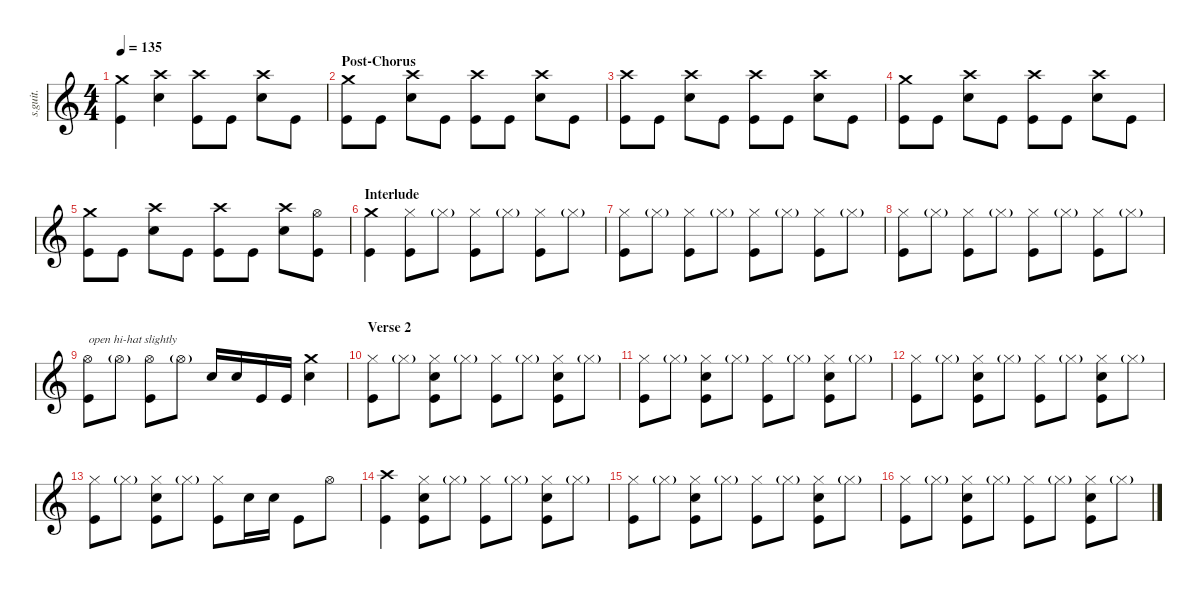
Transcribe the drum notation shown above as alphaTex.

\defaultSystemsLayout 4
\hideDynamics
\bracketExtendMode nobrackets
\track ("Jen Ledger" "s.guit.") {instrument percussion}
\staff {score}
\articulation defaults
\ts (4 4)
\tempo 135
\clef g2
\ks c
("Crash medium (hit)" "Kick (hit)").4{lyrics (0 "") lyrics (1 "") lyrics (2 "") lyrics (3 "") lyrics (4 "") dy fff} ("Crash high (hit)" "Snare (hit) 2").4{lyrics (0 "") lyrics (1 "") lyrics (2 "") lyrics (3 "") lyrics (4 "") dy f} ("Crash high (hit)" "Kick (hit)").8{lyrics (0 "") lyrics (1 "") lyrics (2 "") lyrics (3 "") lyrics (4 "")} "Kick (hit)".8{lyrics (0 "") lyrics (1 "") lyrics (2 "") lyrics (3 "") lyrics (4 "") dy fff} ("Crash high (hit)" "Snare (hit) 2").8{lyrics (0 "") lyrics (1 "") lyrics (2 "") lyrics (3 "") lyrics (4 "") dy f} "Kick (hit)".8{lyrics (0 "") lyrics (1 "") lyrics (2 "") lyrics (3 "") lyrics (4 "") dy fff} |
\section ("" "Post-Chorus")
("Crash medium (hit)" "Kick (hit)").8{lyrics (0 "") lyrics (1 "") lyrics (2 "") lyrics (3 "") lyrics (4 "")} "Kick (hit)".8{lyrics (0 "") lyrics (1 "") lyrics (2 "") lyrics (3 "") lyrics (4 "")} ("Crash high (hit)" "Snare (hit) 2").8{lyrics (0 "") lyrics (1 "") lyrics (2 "") lyrics (3 "") lyrics (4 "") dy f} "Kick (hit)".8{lyrics (0 "") lyrics (1 "") lyrics (2 "") lyrics (3 "") lyrics (4 "") dy fff} ("Crash high (hit)" "Kick (hit)").8{lyrics (0 "") lyrics (1 "") lyrics (2 "") lyrics (3 "") lyrics (4 "")} "Kick (hit)".8{lyrics (0 "") lyrics (1 "") lyrics (2 "") lyrics (3 "") lyrics (4 "")} ("Crash high (hit)" "Snare (hit) 2").8{lyrics (0 "") lyrics (1 "") lyrics (2 "") lyrics (3 "") lyrics (4 "") dy f} "Kick (hit)".8{lyrics (0 "") lyrics (1 "") lyrics (2 "") lyrics (3 "") lyrics (4 "") dy fff} |
("Crash high (hit)" "Kick (hit)").8{lyrics (0 "") lyrics (1 "") lyrics (2 "") lyrics (3 "") lyrics (4 "")} "Kick (hit)".8{lyrics (0 "") lyrics (1 "") lyrics (2 "") lyrics (3 "") lyrics (4 "")} ("Crash high (hit)" "Snare (hit) 2").8{lyrics (0 "") lyrics (1 "") lyrics (2 "") lyrics (3 "") lyrics (4 "") dy f} "Kick (hit)".8{lyrics (0 "") lyrics (1 "") lyrics (2 "") lyrics (3 "") lyrics (4 "") dy fff} ("Crash high (hit)" "Kick (hit)").8{lyrics (0 "") lyrics (1 "") lyrics (2 "") lyrics (3 "") lyrics (4 "")} "Kick (hit)".8{lyrics (0 "") lyrics (1 "") lyrics (2 "") lyrics (3 "") lyrics (4 "")} ("Crash high (hit)" "Snare (hit) 2").8{lyrics (0 "") lyrics (1 "") lyrics (2 "") lyrics (3 "") lyrics (4 "") dy f} "Kick (hit)".8{lyrics (0 "") lyrics (1 "") lyrics (2 "") lyrics (3 "") lyrics (4 "") dy fff} |
("Crash medium (hit)" "Kick (hit)").8{lyrics (0 "") lyrics (1 "") lyrics (2 "") lyrics (3 "") lyrics (4 "")} "Kick (hit)".8{lyrics (0 "") lyrics (1 "") lyrics (2 "") lyrics (3 "") lyrics (4 "")} ("Crash high (hit)" "Snare (hit) 2").8{lyrics (0 "") lyrics (1 "") lyrics (2 "") lyrics (3 "") lyrics (4 "") dy f} "Kick (hit)".8{lyrics (0 "") lyrics (1 "") lyrics (2 "") lyrics (3 "") lyrics (4 "") dy fff} ("Crash high (hit)" "Kick (hit)").8{lyrics (0 "") lyrics (1 "") lyrics (2 "") lyrics (3 "") lyrics (4 "")} "Kick (hit)".8{lyrics (0 "") lyrics (1 "") lyrics (2 "") lyrics (3 "") lyrics (4 "")} ("Crash high (hit)" "Snare (hit) 2").8{lyrics (0 "") lyrics (1 "") lyrics (2 "") lyrics (3 "") lyrics (4 "") dy f} "Kick (hit)".8{lyrics (0 "") lyrics (1 "") lyrics (2 "") lyrics (3 "") lyrics (4 "") dy fff} |
("Crash medium (hit)" "Kick (hit)").8{lyrics (0 "") lyrics (1 "") lyrics (2 "") lyrics (3 "") lyrics (4 "")} "Kick (hit)".8{lyrics (0 "") lyrics (1 "") lyrics (2 "") lyrics (3 "") lyrics (4 "")} ("Crash high (hit)" "Snare (hit) 2").8{lyrics (0 "") lyrics (1 "") lyrics (2 "") lyrics (3 "") lyrics (4 "") dy f} "Kick (hit)".8{lyrics (0 "") lyrics (1 "") lyrics (2 "") lyrics (3 "") lyrics (4 "") dy fff} ("Crash high (hit)" "Kick (hit)").8{lyrics (0 "") lyrics (1 "") lyrics (2 "") lyrics (3 "") lyrics (4 "")} "Kick (hit)".8{lyrics (0 "") lyrics (1 "") lyrics (2 "") lyrics (3 "") lyrics (4 "")} ("Crash high (hit)" "Snare (hit) 2").8{lyrics (0 "") lyrics (1 "") lyrics (2 "") lyrics (3 "") lyrics (4 "") dy f} ("Hi-Hat (open)" "Kick (hit)").8{lyrics (0 "") lyrics (1 "") lyrics (2 "") lyrics (3 "") lyrics (4 "")} |
\section ("" "Interlude")
("Crash medium (hit)" "Kick (hit)").4{lyrics (0 "") lyrics (1 "") lyrics (2 "") lyrics (3 "") lyrics (4 "")} ("Hi-Hat (closed)" "Kick (hit)").8{lyrics (0 "") lyrics (1 "") lyrics (2 "") lyrics (3 "") lyrics (4 "")} "Hi-Hat (closed)"{g}.8{lyrics (0 "") lyrics (1 "") lyrics (2 "") lyrics (3 "") lyrics (4 "") dy ppp} ("Hi-Hat (closed)" "Kick (hit)").8{lyrics (0 "") lyrics (1 "") lyrics (2 "") lyrics (3 "") lyrics (4 "") dy f} "Hi-Hat (closed)"{g}.8{lyrics (0 "") lyrics (1 "") lyrics (2 "") lyrics (3 "") lyrics (4 "") dy ppp} ("Hi-Hat (closed)" "Kick (hit)").8{lyrics (0 "") lyrics (1 "") lyrics (2 "") lyrics (3 "") lyrics (4 "") dy f} "Hi-Hat (closed)"{g}.8{lyrics (0 "") lyrics (1 "") lyrics (2 "") lyrics (3 "") lyrics (4 "") dy ppp} |
("Hi-Hat (closed)" "Kick (hit)").8{lyrics (0 "") lyrics (1 "") lyrics (2 "") lyrics (3 "") lyrics (4 "") dy f} "Hi-Hat (closed)"{g}.8{lyrics (0 "") lyrics (1 "") lyrics (2 "") lyrics (3 "") lyrics (4 "") dy ppp} ("Hi-Hat (closed)" "Kick (hit)").8{lyrics (0 "") lyrics (1 "") lyrics (2 "") lyrics (3 "") lyrics (4 "") dy f} "Hi-Hat (closed)"{g}.8{lyrics (0 "") lyrics (1 "") lyrics (2 "") lyrics (3 "") lyrics (4 "") dy ppp} ("Hi-Hat (closed)" "Kick (hit)").8{lyrics (0 "") lyrics (1 "") lyrics (2 "") lyrics (3 "") lyrics (4 "") dy f} "Hi-Hat (closed)"{g}.8{lyrics (0 "") lyrics (1 "") lyrics (2 "") lyrics (3 "") lyrics (4 "") dy ppp} ("Hi-Hat (closed)" "Kick (hit)").8{lyrics (0 "") lyrics (1 "") lyrics (2 "") lyrics (3 "") lyrics (4 "") dy f} "Hi-Hat (closed)"{g}.8{lyrics (0 "") lyrics (1 "") lyrics (2 "") lyrics (3 "") lyrics (4 "") dy ppp} |
("Hi-Hat (closed)" "Kick (hit)").8{lyrics (0 "") lyrics (1 "") lyrics (2 "") lyrics (3 "") lyrics (4 "") dy f} "Hi-Hat (closed)"{g}.8{lyrics (0 "") lyrics (1 "") lyrics (2 "") lyrics (3 "") lyrics (4 "") dy ppp} ("Hi-Hat (closed)" "Kick (hit)").8{lyrics (0 "") lyrics (1 "") lyrics (2 "") lyrics (3 "") lyrics (4 "") dy f} "Hi-Hat (closed)"{g}.8{lyrics (0 "") lyrics (1 "") lyrics (2 "") lyrics (3 "") lyrics (4 "") dy ppp} ("Hi-Hat (closed)" "Kick (hit)").8{lyrics (0 "") lyrics (1 "") lyrics (2 "") lyrics (3 "") lyrics (4 "") dy f} "Hi-Hat (closed)"{g}.8{lyrics (0 "") lyrics (1 "") lyrics (2 "") lyrics (3 "") lyrics (4 "") dy ppp} ("Hi-Hat (closed)" "Kick (hit)").8{lyrics (0 "") lyrics (1 "") lyrics (2 "") lyrics (3 "") lyrics (4 "") dy f} "Hi-Hat (closed)"{g}.8{lyrics (0 "") lyrics (1 "") lyrics (2 "") lyrics (3 "") lyrics (4 "") dy ppp} |
("Hi-Hat (open)" "Kick (hit)").8{txt "open hi-hat slightly" lyrics (0 "") lyrics (1 "") lyrics (2 "") lyrics (3 "") lyrics (4 "") dy p} "Hi-Hat (open)"{g}.8{lyrics (0 "") lyrics (1 "") lyrics (2 "") lyrics (3 "") lyrics (4 "") dy ppp} ("Hi-Hat (open)" "Kick (hit)").8{lyrics (0 "") lyrics (1 "") lyrics (2 "") lyrics (3 "") lyrics (4 "") dy p} "Hi-Hat (open)"{g}.8{lyrics (0 "") lyrics (1 "") lyrics (2 "") lyrics (3 "") lyrics (4 "") dy ppp} "Snare (hit) 2".16{lyrics (0 "") lyrics (1 "") lyrics (2 "") lyrics (3 "") lyrics (4 "") dy f} "Snare (hit) 2".16{lyrics (0 "") lyrics (1 "") lyrics (2 "") lyrics (3 "") lyrics (4 "")} "Kick (hit)".16{lyrics (0 "") lyrics (1 "") lyrics (2 "") lyrics (3 "") lyrics (4 "") dy fff} "Kick (hit)".16{lyrics (0 "") lyrics (1 "") lyrics (2 "") lyrics (3 "") lyrics (4 "")} ("Crash medium (hit)" "Snare (hit) 2").4{lyrics (0 "") lyrics (1 "") lyrics (2 "") lyrics (3 "") lyrics (4 "") dy f} |
\section ("" "Verse 2")
("Hi-Hat (closed)" "Kick (hit)").8{lyrics (0 "") lyrics (1 "") lyrics (2 "") lyrics (3 "") lyrics (4 "")} "Hi-Hat (closed)"{g}.8{lyrics (0 "") lyrics (1 "") lyrics (2 "") lyrics (3 "") lyrics (4 "") dy ppp} ("Hi-Hat (closed)" "Snare (hit) 2" "Kick (hit)").8{lyrics (0 "") lyrics (1 "") lyrics (2 "") lyrics (3 "") lyrics (4 "") dy f} "Hi-Hat (closed)"{g}.8{lyrics (0 "") lyrics (1 "") lyrics (2 "") lyrics (3 "") lyrics (4 "") dy ppp} ("Hi-Hat (closed)" "Kick (hit)").8{lyrics (0 "") lyrics (1 "") lyrics (2 "") lyrics (3 "") lyrics (4 "") dy f} "Hi-Hat (closed)"{g}.8{lyrics (0 "") lyrics (1 "") lyrics (2 "") lyrics (3 "") lyrics (4 "") dy ppp} ("Hi-Hat (closed)" "Snare (hit) 2" "Kick (hit)").8{lyrics (0 "") lyrics (1 "") lyrics (2 "") lyrics (3 "") lyrics (4 "") dy f} "Hi-Hat (closed)"{g}.8{lyrics (0 "") lyrics (1 "") lyrics (2 "") lyrics (3 "") lyrics (4 "") dy ppp} |
("Hi-Hat (closed)" "Kick (hit)").8{lyrics (0 "") lyrics (1 "") lyrics (2 "") lyrics (3 "") lyrics (4 "") dy f} "Hi-Hat (closed)"{g}.8{lyrics (0 "") lyrics (1 "") lyrics (2 "") lyrics (3 "") lyrics (4 "") dy ppp} ("Hi-Hat (closed)" "Snare (hit) 2" "Kick (hit)").8{lyrics (0 "") lyrics (1 "") lyrics (2 "") lyrics (3 "") lyrics (4 "") dy f} "Hi-Hat (closed)"{g}.8{lyrics (0 "") lyrics (1 "") lyrics (2 "") lyrics (3 "") lyrics (4 "") dy ppp} ("Hi-Hat (closed)" "Kick (hit)").8{lyrics (0 "") lyrics (1 "") lyrics (2 "") lyrics (3 "") lyrics (4 "") dy f} "Hi-Hat (closed)"{g}.8{lyrics (0 "") lyrics (1 "") lyrics (2 "") lyrics (3 "") lyrics (4 "") dy ppp} ("Hi-Hat (closed)" "Snare (hit) 2" "Kick (hit)").8{lyrics (0 "") lyrics (1 "") lyrics (2 "") lyrics (3 "") lyrics (4 "") dy f} "Hi-Hat (closed)"{g}.8{lyrics (0 "") lyrics (1 "") lyrics (2 "") lyrics (3 "") lyrics (4 "") dy ppp} |
("Hi-Hat (closed)" "Kick (hit)").8{lyrics (0 "") lyrics (1 "") lyrics (2 "") lyrics (3 "") lyrics (4 "") dy f} "Hi-Hat (closed)"{g}.8{lyrics (0 "") lyrics (1 "") lyrics (2 "") lyrics (3 "") lyrics (4 "") dy ppp} ("Hi-Hat (closed)" "Snare (hit) 2" "Kick (hit)").8{lyrics (0 "") lyrics (1 "") lyrics (2 "") lyrics (3 "") lyrics (4 "") dy f} "Hi-Hat (closed)"{g}.8{lyrics (0 "") lyrics (1 "") lyrics (2 "") lyrics (3 "") lyrics (4 "") dy ppp} ("Hi-Hat (closed)" "Kick (hit)").8{lyrics (0 "") lyrics (1 "") lyrics (2 "") lyrics (3 "") lyrics (4 "") dy f} "Hi-Hat (closed)"{g}.8{lyrics (0 "") lyrics (1 "") lyrics (2 "") lyrics (3 "") lyrics (4 "") dy ppp} ("Hi-Hat (closed)" "Snare (hit) 2" "Kick (hit)").8{lyrics (0 "") lyrics (1 "") lyrics (2 "") lyrics (3 "") lyrics (4 "") dy f} "Hi-Hat (closed)"{g}.8{lyrics (0 "") lyrics (1 "") lyrics (2 "") lyrics (3 "") lyrics (4 "") dy ppp} |
("Hi-Hat (closed)" "Kick (hit)").8{lyrics (0 "") lyrics (1 "") lyrics (2 "") lyrics (3 "") lyrics (4 "") dy f} "Hi-Hat (closed)"{g}.8{lyrics (0 "") lyrics (1 "") lyrics (2 "") lyrics (3 "") lyrics (4 "") dy ppp} ("Hi-Hat (closed)" "Snare (hit) 2" "Kick (hit)").8{lyrics (0 "") lyrics (1 "") lyrics (2 "") lyrics (3 "") lyrics (4 "") dy f} "Hi-Hat (closed)"{g}.8{lyrics (0 "") lyrics (1 "") lyrics (2 "") lyrics (3 "") lyrics (4 "") dy ppp} ("Hi-Hat (closed)" "Kick (hit)").8{lyrics (0 "") lyrics (1 "") lyrics (2 "") lyrics (3 "") lyrics (4 "") dy f} "Snare (hit) 2".16{lyrics (0 "") lyrics (1 "") lyrics (2 "") lyrics (3 "") lyrics (4 "")} "Snare (hit) 2".16{lyrics (0 "") lyrics (1 "") lyrics (2 "") lyrics (3 "") lyrics (4 "")} "Kick (hit)".8{lyrics (0 "") lyrics (1 "") lyrics (2 "") lyrics (3 "") lyrics (4 "") dy fff} "Hi-Hat (open)".8{lyrics (0 "") lyrics (1 "") lyrics (2 "") lyrics (3 "") lyrics (4 "") dy f} |
("Crash high (hit)" "Kick (hit)").4{lyrics (0 "") lyrics (1 "") lyrics (2 "") lyrics (3 "") lyrics (4 "")} ("Hi-Hat (closed)" "Snare (hit) 2" "Kick (hit)").8{lyrics (0 "") lyrics (1 "") lyrics (2 "") lyrics (3 "") lyrics (4 "")} "Hi-Hat (closed)"{g}.8{lyrics (0 "") lyrics (1 "") lyrics (2 "") lyrics (3 "") lyrics (4 "") dy ppp} ("Hi-Hat (closed)" "Kick (hit)").8{lyrics (0 "") lyrics (1 "") lyrics (2 "") lyrics (3 "") lyrics (4 "") dy f} "Hi-Hat (closed)"{g}.8{lyrics (0 "") lyrics (1 "") lyrics (2 "") lyrics (3 "") lyrics (4 "") dy ppp} ("Hi-Hat (closed)" "Snare (hit) 2" "Kick (hit)").8{lyrics (0 "") lyrics (1 "") lyrics (2 "") lyrics (3 "") lyrics (4 "") dy f} "Hi-Hat (closed)"{g}.8{lyrics (0 "") lyrics (1 "") lyrics (2 "") lyrics (3 "") lyrics (4 "") dy ppp} |
("Hi-Hat (closed)" "Kick (hit)").8{lyrics (0 "") lyrics (1 "") lyrics (2 "") lyrics (3 "") lyrics (4 "") dy f} "Hi-Hat (closed)"{g}.8{lyrics (0 "") lyrics (1 "") lyrics (2 "") lyrics (3 "") lyrics (4 "") dy ppp} ("Hi-Hat (closed)" "Snare (hit) 2" "Kick (hit)").8{lyrics (0 "") lyrics (1 "") lyrics (2 "") lyrics (3 "") lyrics (4 "") dy f} "Hi-Hat (closed)"{g}.8{lyrics (0 "") lyrics (1 "") lyrics (2 "") lyrics (3 "") lyrics (4 "") dy ppp} ("Hi-Hat (closed)" "Kick (hit)").8{lyrics (0 "") lyrics (1 "") lyrics (2 "") lyrics (3 "") lyrics (4 "") dy f} "Hi-Hat (closed)"{g}.8{lyrics (0 "") lyrics (1 "") lyrics (2 "") lyrics (3 "") lyrics (4 "") dy ppp} ("Hi-Hat (closed)" "Snare (hit) 2" "Kick (hit)").8{lyrics (0 "") lyrics (1 "") lyrics (2 "") lyrics (3 "") lyrics (4 "") dy f} "Hi-Hat (closed)"{g}.8{lyrics (0 "") lyrics (1 "") lyrics (2 "") lyrics (3 "") lyrics (4 "") dy ppp} |
("Hi-Hat (closed)" "Kick (hit)").8{lyrics (0 "") lyrics (1 "") lyrics (2 "") lyrics (3 "") lyrics (4 "") dy f} "Hi-Hat (closed)"{g}.8{lyrics (0 "") lyrics (1 "") lyrics (2 "") lyrics (3 "") lyrics (4 "") dy ppp} ("Hi-Hat (closed)" "Snare (hit) 2" "Kick (hit)").8{lyrics (0 "") lyrics (1 "") lyrics (2 "") lyrics (3 "") lyrics (4 "") dy f} "Hi-Hat (closed)"{g}.8{lyrics (0 "") lyrics (1 "") lyrics (2 "") lyrics (3 "") lyrics (4 "") dy ppp} ("Hi-Hat (closed)" "Kick (hit)").8{lyrics (0 "") lyrics (1 "") lyrics (2 "") lyrics (3 "") lyrics (4 "") dy f} "Hi-Hat (closed)"{g}.8{lyrics (0 "") lyrics (1 "") lyrics (2 "") lyrics (3 "") lyrics (4 "") dy ppp} ("Hi-Hat (closed)" "Snare (hit) 2" "Kick (hit)").8{lyrics (0 "") lyrics (1 "") lyrics (2 "") lyrics (3 "") lyrics (4 "") dy f} "Hi-Hat (closed)"{g}.8{lyrics (0 "") lyrics (1 "") lyrics (2 "") lyrics (3 "") lyrics (4 "") dy ppp}
